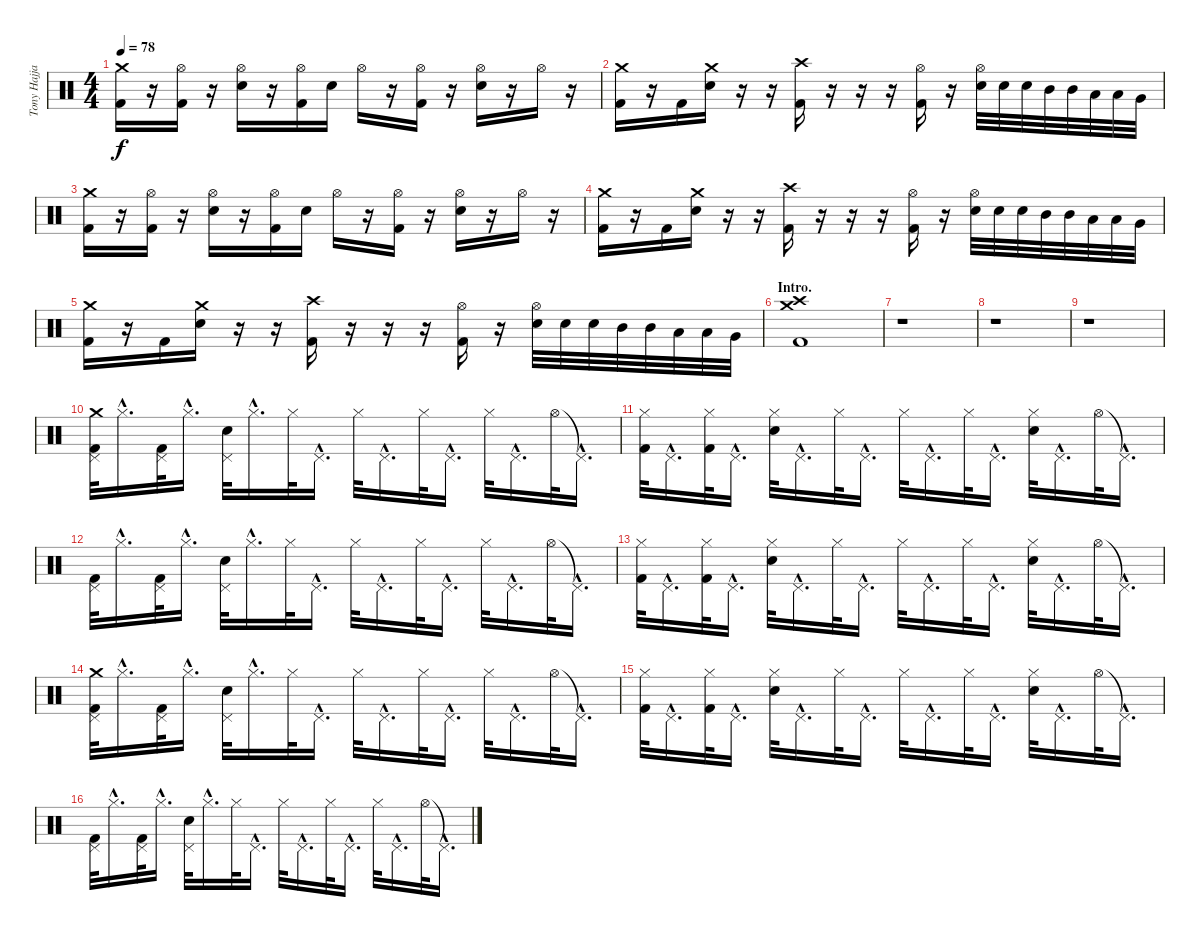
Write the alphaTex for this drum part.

\track ("Tony Hajjar" "Tony Hajja") {instrument percussion}
\staff {score}
\articulation defaults
\ts (4 4)
\tempo 78
\clef neutral
\ks c
("Crash medium (hit)" "Kick (hit) 2").16{dy f} r.16 ("Hi-Hat (open)" "Kick (hit) 2").16 r.16 ("Hi-Hat (open)" "Electric Snare (hit)").16 r.16 ("Hi-Hat (open)" "Kick (hit) 2").16 "Electric Snare (hit)".16 "Hi-Hat (open)".16 r.16 ("Hi-Hat (open)" "Kick (hit) 2").16 r.16 ("Hi-Hat (open)" "Electric Snare (hit)").16 r.16 "Hi-Hat (open)".16 r.16 |
("Crash medium (hit)" "Kick (hit) 2").16 r.16 "Kick (hit) 2".16 ("Crash medium (hit)" "Electric Snare (hit)").16 r.16 r.16 ("Crash high (hit)" "Kick (hit) 2").16 r.16 r.16 r.16 ("Hi-Hat (open)" "Kick (hit) 2").16 r.16 ("Hi-Hat (open)" "Electric Snare (hit)").32 "Electric Snare (hit)".32 "Electric Snare (hit)".32 "Mid Tom (hit)".32 "Mid Tom (hit)".32 "Low Tom (hit)".32 "Low Tom (hit)".32 "Very Low Tom (hit)".32 |
("Crash medium (hit)" "Kick (hit) 2").16 r.16 ("Hi-Hat (open)" "Kick (hit) 2").16 r.16 ("Hi-Hat (open)" "Electric Snare (hit)").16 r.16 ("Hi-Hat (open)" "Kick (hit) 2").16 "Electric Snare (hit)".16 "Hi-Hat (open)".16 r.16 ("Hi-Hat (open)" "Kick (hit) 2").16 r.16 ("Hi-Hat (open)" "Electric Snare (hit)").16 r.16 "Hi-Hat (open)".16 r.16 |
("Crash medium (hit)" "Kick (hit) 2").16 r.16 "Kick (hit) 2".16 ("Crash medium (hit)" "Electric Snare (hit)").16 r.16 r.16 ("Crash high (hit)" "Kick (hit) 2").16 r.16 r.16 r.16 ("Hi-Hat (open)" "Kick (hit) 2").16 r.16 ("Hi-Hat (open)" "Electric Snare (hit)").32 "Electric Snare (hit)".32 "Electric Snare (hit)".32 "Mid Tom (hit)".32 "Mid Tom (hit)".32 "Low Tom (hit)".32 "Low Tom (hit)".32 "Very Low Tom (hit)".32 |
("Crash medium (hit)" "Kick (hit) 2").16 r.16 "Kick (hit) 2".16 ("Crash medium (hit)" "Electric Snare (hit)").16 r.16 r.16 ("Crash high (hit)" "Kick (hit) 2").16 r.16 r.16 r.16 ("Hi-Hat (open)" "Kick (hit) 2").16 r.16 ("Hi-Hat (open)" "Electric Snare (hit)").32 "Electric Snare (hit)".32 "Electric Snare (hit)".32 "Mid Tom (hit)".32 "Mid Tom (hit)".32 "Low Tom (hit)".32 "Low Tom (hit)".32 "Very Low Tom (hit)".32 |
\section ("" "Intro.")
("Crash medium (hit)" "Crash high (hit)" "Kick (hit) 2").1 |
r.1 |
r.1 |
r.1 |
("Crash medium (hit)" "Pedal Hi-Hat (hit)" "Kick (hit) 2").32 "Hi-Hat (closed)"{hac}.16{d} ("Pedal Hi-Hat (hit)" "Kick (hit) 2").32 "Hi-Hat (closed)"{hac}.16{d} ("Pedal Hi-Hat (hit)" "Electric Snare (hit)").32 "Hi-Hat (closed)"{hac}.16{d} "Hi-Hat (closed)".32 "Pedal Hi-Hat (hit)"{hac}.16{d} "Hi-Hat (closed)".32 "Pedal Hi-Hat (hit)"{hac}.16{d} "Hi-Hat (closed)".32 "Pedal Hi-Hat (hit)"{hac}.16{d} "Hi-Hat (closed)".32 "Pedal Hi-Hat (hit)"{hac}.16{d} "Hi-Hat (open)".32 "Pedal Hi-Hat (hit)"{hac t}.16{d} |
("Hi-Hat (closed)" "Kick (hit) 2").32 "Pedal Hi-Hat (hit)"{hac}.16{d} ("Hi-Hat (closed)" "Kick (hit) 2").32 "Pedal Hi-Hat (hit)"{hac}.16{d} ("Hi-Hat (closed)" "Electric Snare (hit)").32 "Pedal Hi-Hat (hit)"{hac}.16{d} "Hi-Hat (closed)".32 "Pedal Hi-Hat (hit)"{hac}.16{d} "Hi-Hat (closed)".32 "Pedal Hi-Hat (hit)"{hac}.16{d} "Hi-Hat (closed)".32 "Pedal Hi-Hat (hit)"{hac}.16{d} ("Hi-Hat (closed)" "Electric Snare (hit)").32 "Pedal Hi-Hat (hit)"{hac}.16{d} "Hi-Hat (open)".32 "Pedal Hi-Hat (hit)"{hac t}.16{d} |
("Pedal Hi-Hat (hit)" "Kick (hit) 2").32 "Hi-Hat (closed)"{hac}.16{d} ("Pedal Hi-Hat (hit)" "Kick (hit) 2").32 "Hi-Hat (closed)"{hac}.16{d} ("Pedal Hi-Hat (hit)" "Electric Snare (hit)").32 "Hi-Hat (closed)"{hac}.16{d} "Hi-Hat (closed)".32 "Pedal Hi-Hat (hit)"{hac}.16{d} "Hi-Hat (closed)".32 "Pedal Hi-Hat (hit)"{hac}.16{d} "Hi-Hat (closed)".32 "Pedal Hi-Hat (hit)"{hac}.16{d} "Hi-Hat (closed)".32 "Pedal Hi-Hat (hit)"{hac}.16{d} "Hi-Hat (open)".32 "Pedal Hi-Hat (hit)"{hac t}.16{d} |
("Hi-Hat (closed)" "Kick (hit) 2").32 "Pedal Hi-Hat (hit)"{hac}.16{d} ("Hi-Hat (closed)" "Kick (hit) 2").32 "Pedal Hi-Hat (hit)"{hac}.16{d} ("Hi-Hat (closed)" "Electric Snare (hit)").32 "Pedal Hi-Hat (hit)"{hac}.16{d} "Hi-Hat (closed)".32 "Pedal Hi-Hat (hit)"{hac}.16{d} "Hi-Hat (closed)".32 "Pedal Hi-Hat (hit)"{hac}.16{d} "Hi-Hat (closed)".32 "Pedal Hi-Hat (hit)"{hac}.16{d} ("Hi-Hat (closed)" "Electric Snare (hit)").32 "Pedal Hi-Hat (hit)"{hac}.16{d} "Hi-Hat (open)".32 "Pedal Hi-Hat (hit)"{hac t}.16{d} |
("Crash medium (hit)" "Pedal Hi-Hat (hit)" "Kick (hit) 2").32 "Hi-Hat (closed)"{hac}.16{d} ("Pedal Hi-Hat (hit)" "Kick (hit) 2").32 "Hi-Hat (closed)"{hac}.16{d} ("Pedal Hi-Hat (hit)" "Electric Snare (hit)").32 "Hi-Hat (closed)"{hac}.16{d} "Hi-Hat (closed)".32 "Pedal Hi-Hat (hit)"{hac}.16{d} "Hi-Hat (closed)".32 "Pedal Hi-Hat (hit)"{hac}.16{d} "Hi-Hat (closed)".32 "Pedal Hi-Hat (hit)"{hac}.16{d} "Hi-Hat (closed)".32 "Pedal Hi-Hat (hit)"{hac}.16{d} "Hi-Hat (open)".32 "Pedal Hi-Hat (hit)"{hac t}.16{d} |
("Hi-Hat (closed)" "Kick (hit) 2").32 "Pedal Hi-Hat (hit)"{hac}.16{d} ("Hi-Hat (closed)" "Kick (hit) 2").32 "Pedal Hi-Hat (hit)"{hac}.16{d} ("Hi-Hat (closed)" "Electric Snare (hit)").32 "Pedal Hi-Hat (hit)"{hac}.16{d} "Hi-Hat (closed)".32 "Pedal Hi-Hat (hit)"{hac}.16{d} "Hi-Hat (closed)".32 "Pedal Hi-Hat (hit)"{hac}.16{d} "Hi-Hat (closed)".32 "Pedal Hi-Hat (hit)"{hac}.16{d} ("Hi-Hat (closed)" "Electric Snare (hit)").32 "Pedal Hi-Hat (hit)"{hac}.16{d} "Hi-Hat (open)".32 "Pedal Hi-Hat (hit)"{hac t}.16{d} |
("Pedal Hi-Hat (hit)" "Kick (hit) 2").32 "Hi-Hat (closed)"{hac}.16{d} ("Pedal Hi-Hat (hit)" "Kick (hit) 2").32 "Hi-Hat (closed)"{hac}.16{d} ("Pedal Hi-Hat (hit)" "Electric Snare (hit)").32 "Hi-Hat (closed)"{hac}.16{d} "Hi-Hat (closed)".32 "Pedal Hi-Hat (hit)"{hac}.16{d} "Hi-Hat (closed)".32 "Pedal Hi-Hat (hit)"{hac}.16{d} "Hi-Hat (closed)".32 "Pedal Hi-Hat (hit)"{hac}.16{d} "Hi-Hat (closed)".32 "Pedal Hi-Hat (hit)"{hac}.16{d} "Hi-Hat (open)".32 "Pedal Hi-Hat (hit)"{hac t}.16{d}
